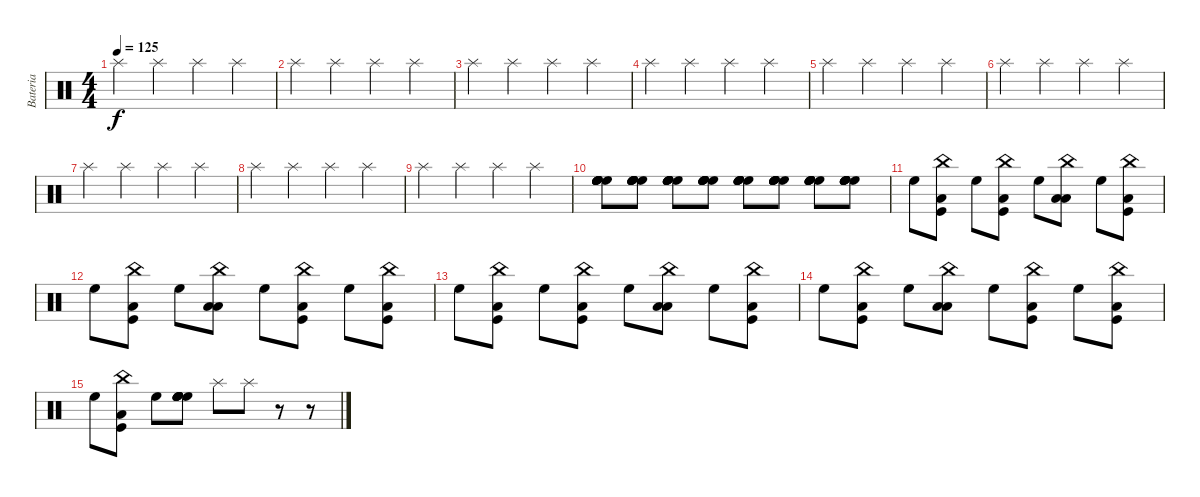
\track ("Bateria" "Bateria") {instrument percussion}
\staff {score}
\articulation defaults
\ts (4 4)
\tempo 125
\clef neutral
\ks c "Splash (hit)".4{dy f} "Splash (hit)".4 "Splash (hit)".4 "Splash (hit)".4
|
"Splash (hit)".4 "Splash (hit)".4 "Splash (hit)".4 "Splash (hit)".4 |
"Splash (hit)".4 "Splash (hit)".4 "Splash (hit)".4 "Splash (hit)".4 |
"Splash (hit)".4 "Splash (hit)".4 "Splash (hit)".4 "Splash (hit)".4 |
"Splash (hit)".4 "Splash (hit)".4 "Splash (hit)".4 "Splash (hit)".4 |
"Splash (hit)".4 "Splash (hit)".4 "Splash (hit)".4 "Splash (hit)".4 |
"Splash (hit)".4 "Splash (hit)".4 "Splash (hit)".4 "Splash (hit)".4 |
"Splash (hit)".4 "Splash (hit)".4 "Splash (hit)".4 "Splash (hit)".4 |
"Splash (hit)".4 "Splash (hit)".4 "Splash (hit)".4 "Splash (hit)".4 |
("High Floor Tom (hit)" "High Floor Tom (hit)" "High Floor Tom (hit)" "High Floor Tom (hit)" "High Floor Tom (hit)" "High Floor Tom (hit)").8 ("High Floor Tom (hit)" "High Floor Tom (hit)" "High Floor Tom (hit)" "High Floor Tom (hit)" "High Floor Tom (hit)" "High Floor Tom (hit)").8 ("High Floor Tom (hit)" "High Floor Tom (hit)" "High Floor Tom (hit)" "High Floor Tom (hit)" "High Floor Tom (hit)" "High Floor Tom (hit)").8 ("High Floor Tom (hit)" "High Floor Tom (hit)" "High Floor Tom (hit)" "High Floor Tom (hit)" "High Floor Tom (hit)" "High Floor Tom (hit)").8 ("High Floor Tom (hit)" "High Floor Tom (hit)" "High Floor Tom (hit)" "High Floor Tom (hit)" "High Floor Tom (hit)" "High Floor Tom (hit)").8 ("High Floor Tom (hit)" "High Floor Tom (hit)" "High Floor Tom (hit)" "High Floor Tom (hit)" "High Floor Tom (hit)" "High Floor Tom (hit)").8 ("High Floor Tom (hit)" "High Floor Tom (hit)" "High Floor Tom (hit)" "High Floor Tom (hit)" "High Floor Tom (hit)" "High Floor Tom (hit)").8 ("High Floor Tom (hit)" "High Floor Tom (hit)" "High Floor Tom (hit)" "High Floor Tom (hit)" "High Floor Tom (hit)" "High Floor Tom (hit)").8 |
"High Floor Tom (hit)".8 ("Low Tom (hit)" "Kick (hit)" "China (hit)").8 "High Floor Tom (hit)".8 ("Low Tom (hit)" "Kick (hit)" "China (hit)").8 "High Floor Tom (hit)".8 ("Low Tom (hit)" "Low Tom (hit)" "China (hit)").8 "High Floor Tom (hit)".8 ("Low Tom (hit)" "Kick (hit)" "China (hit)").8 |
"High Floor Tom (hit)".8 ("Low Tom (hit)" "Kick (hit)" "China (hit)").8 "High Floor Tom (hit)".8 ("Low Tom (hit)" "Low Tom (hit)" "China (hit)").8 "High Floor Tom (hit)".8 ("Low Tom (hit)" "Kick (hit)" "China (hit)").8 "High Floor Tom (hit)".8 ("Low Tom (hit)" "Kick (hit)" "China (hit)").8 |
"High Floor Tom (hit)".8 ("Low Tom (hit)" "Kick (hit)" "China (hit)").8 "High Floor Tom (hit)".8 ("Low Tom (hit)" "Kick (hit)" "China (hit)").8 "High Floor Tom (hit)".8 ("Low Tom (hit)" "Low Tom (hit)" "China (hit)").8 "High Floor Tom (hit)".8 ("Low Tom (hit)" "Kick (hit)" "China (hit)").8 |
"High Floor Tom (hit)".8 ("Low Tom (hit)" "Kick (hit)" "China (hit)").8 "High Floor Tom (hit)".8 ("Low Tom (hit)" "Low Tom (hit)" "China (hit)").8 "High Floor Tom (hit)".8 ("Low Tom (hit)" "Kick (hit)" "China (hit)").8 "High Floor Tom (hit)".8 ("Low Tom (hit)" "Kick (hit)" "China (hit)").8 |
"High Floor Tom (hit)".8 ("Low Tom (hit)" "Kick (hit)" "China (hit)").8 "High Floor Tom (hit)".8 ("High Floor Tom (hit)" "High Floor Tom (hit)" "High Floor Tom (hit)" "High Floor Tom (hit)" "High Floor Tom (hit)" "High Floor Tom (hit)").8 "Splash (hit)".8 "Splash (hit)".8 r.8 r.8
